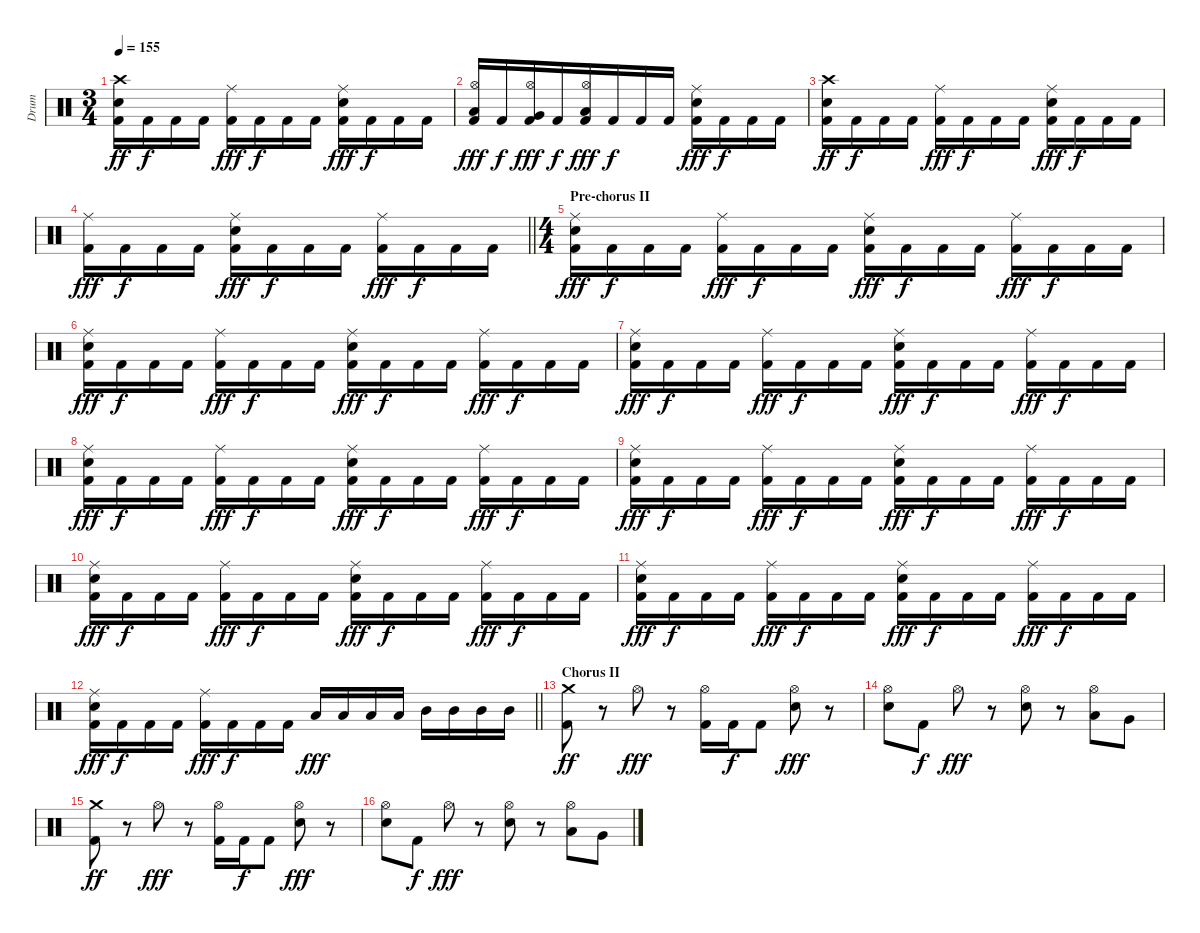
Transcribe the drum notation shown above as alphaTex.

\track ("Drum" "Drum") {instrument percussion}
\staff {score}
\articulation defaults
\ts (3 4)
\tempo 155
\clef neutral
\ks c
("Crash high (hit)" "Snare (hit) 2" "Kick (hit) 2").16{dy ff} "Kick (hit) 2".16{dy f} "Kick (hit) 2".16 "Kick (hit) 2".16 ("Ride (middle)" "Kick (hit) 2").16{dy fff} "Kick (hit) 2".16{dy f} "Kick (hit) 2".16 "Kick (hit) 2".16 ("Ride (middle)" "Snare (hit) 2" "Kick (hit) 2").16{dy fff} "Kick (hit) 2".16{dy f} "Kick (hit) 2".16 "Kick (hit) 2".16 |
("Hi-Hat (open)" "Low Tom (hit)" "Kick (hit) 2").16{dy fff beam merge} "Kick (hit) 2".16{dy f beam merge} ("Hi-Hat (open)" "Very Low Tom (hit)" "Kick (hit) 2").16{dy fff} "Kick (hit) 2".16{dy f beam merge} ("Hi-Hat (open)" "Low Floor Tom (hit)" "Kick (hit) 2").16{dy fff} "Kick (hit) 2".16{dy f} "Kick (hit) 2".16{beam merge} "Kick (hit) 2".16 ("Ride (middle)" "Snare (hit) 2" "Kick (hit) 2").16{dy fff} "Kick (hit) 2".16{dy f} "Kick (hit) 2".16 "Kick (hit) 2".16 |
("Crash high (hit)" "Snare (hit) 2" "Kick (hit) 2").16{dy ff} "Kick (hit) 2".16{dy f} "Kick (hit) 2".16 "Kick (hit) 2".16 ("Ride (middle)" "Kick (hit) 2").16{dy fff} "Kick (hit) 2".16{dy f} "Kick (hit) 2".16 "Kick (hit) 2".16 ("Ride (middle)" "Snare (hit) 2" "Kick (hit) 2").16{dy fff} "Kick (hit) 2".16{dy f} "Kick (hit) 2".16 "Kick (hit) 2".16 |
\barLineRight lightlight
("Ride (middle)" "Kick (hit) 2").16{dy fff} "Kick (hit) 2".16{dy f} "Kick (hit) 2".16 "Kick (hit) 2".16 ("Ride (middle)" "Snare (hit) 2" "Kick (hit) 2").16{dy fff} "Kick (hit) 2".16{dy f} "Kick (hit) 2".16 "Kick (hit) 2".16 ("Ride (middle)" "Kick (hit) 2").16{dy fff} "Kick (hit) 2".16{dy f} "Kick (hit) 2".16 "Kick (hit) 2".16 |
\ts (4 4)
\section ("" "Pre-chorus II")
("Ride (middle)" "Snare (hit) 2" "Kick (hit) 2").16{dy fff} "Kick (hit) 2".16{dy f} "Kick (hit) 2".16 "Kick (hit) 2".16 ("Ride (middle)" "Kick (hit) 2").16{dy fff} "Kick (hit) 2".16{dy f} "Kick (hit) 2".16 "Kick (hit) 2".16 ("Ride (middle)" "Snare (hit) 2" "Kick (hit) 2").16{dy fff} "Kick (hit) 2".16{dy f} "Kick (hit) 2".16 "Kick (hit) 2".16 ("Ride (middle)" "Kick (hit) 2").16{dy fff} "Kick (hit) 2".16{dy f} "Kick (hit) 2".16 "Kick (hit) 2".16 |
("Ride (middle)" "Snare (hit) 2" "Kick (hit) 2").16{dy fff} "Kick (hit) 2".16{dy f} "Kick (hit) 2".16 "Kick (hit) 2".16 ("Ride (middle)" "Kick (hit) 2").16{dy fff} "Kick (hit) 2".16{dy f} "Kick (hit) 2".16 "Kick (hit) 2".16 ("Ride (middle)" "Snare (hit) 2" "Kick (hit) 2").16{dy fff} "Kick (hit) 2".16{dy f} "Kick (hit) 2".16 "Kick (hit) 2".16 ("Ride (middle)" "Kick (hit) 2").16{dy fff} "Kick (hit) 2".16{dy f} "Kick (hit) 2".16 "Kick (hit) 2".16 |
("Ride (middle)" "Snare (hit) 2" "Kick (hit) 2").16{dy fff} "Kick (hit) 2".16{dy f} "Kick (hit) 2".16 "Kick (hit) 2".16 ("Ride (middle)" "Kick (hit) 2").16{dy fff} "Kick (hit) 2".16{dy f} "Kick (hit) 2".16 "Kick (hit) 2".16 ("Ride (middle)" "Snare (hit) 2" "Kick (hit) 2").16{dy fff} "Kick (hit) 2".16{dy f} "Kick (hit) 2".16 "Kick (hit) 2".16 ("Ride (middle)" "Kick (hit) 2").16{dy fff} "Kick (hit) 2".16{dy f} "Kick (hit) 2".16 "Kick (hit) 2".16 |
("Ride (middle)" "Snare (hit) 2" "Kick (hit) 2").16{dy fff} "Kick (hit) 2".16{dy f} "Kick (hit) 2".16 "Kick (hit) 2".16 ("Ride (middle)" "Kick (hit) 2").16{dy fff} "Kick (hit) 2".16{dy f} "Kick (hit) 2".16 "Kick (hit) 2".16 ("Ride (middle)" "Snare (hit) 2" "Kick (hit) 2").16{dy fff} "Kick (hit) 2".16{dy f} "Kick (hit) 2".16 "Kick (hit) 2".16 ("Ride (middle)" "Kick (hit) 2").16{dy fff} "Kick (hit) 2".16{dy f} "Kick (hit) 2".16 "Kick (hit) 2".16 |
("Ride (middle)" "Snare (hit) 2" "Kick (hit) 2").16{dy fff} "Kick (hit) 2".16{dy f} "Kick (hit) 2".16 "Kick (hit) 2".16 ("Ride (middle)" "Kick (hit) 2").16{dy fff} "Kick (hit) 2".16{dy f} "Kick (hit) 2".16 "Kick (hit) 2".16 ("Ride (middle)" "Snare (hit) 2" "Kick (hit) 2").16{dy fff} "Kick (hit) 2".16{dy f} "Kick (hit) 2".16 "Kick (hit) 2".16 ("Ride (middle)" "Kick (hit) 2").16{dy fff} "Kick (hit) 2".16{dy f} "Kick (hit) 2".16 "Kick (hit) 2".16 |
("Ride (middle)" "Snare (hit) 2" "Kick (hit) 2").16{dy fff} "Kick (hit) 2".16{dy f} "Kick (hit) 2".16 "Kick (hit) 2".16 ("Ride (middle)" "Kick (hit) 2").16{dy fff} "Kick (hit) 2".16{dy f} "Kick (hit) 2".16 "Kick (hit) 2".16 ("Ride (middle)" "Snare (hit) 2" "Kick (hit) 2").16{dy fff} "Kick (hit) 2".16{dy f} "Kick (hit) 2".16 "Kick (hit) 2".16 ("Ride (middle)" "Kick (hit) 2").16{dy fff} "Kick (hit) 2".16{dy f} "Kick (hit) 2".16 "Kick (hit) 2".16 |
("Ride (middle)" "Snare (hit) 2" "Kick (hit) 2").16{dy fff} "Kick (hit) 2".16{dy f} "Kick (hit) 2".16 "Kick (hit) 2".16 ("Ride (middle)" "Kick (hit) 2").16{dy fff} "Kick (hit) 2".16{dy f} "Kick (hit) 2".16 "Kick (hit) 2".16 ("Ride (middle)" "Snare (hit) 2" "Kick (hit) 2").16{dy fff} "Kick (hit) 2".16{dy f} "Kick (hit) 2".16 "Kick (hit) 2".16 ("Ride (middle)" "Kick (hit) 2").16{dy fff} "Kick (hit) 2".16{dy f} "Kick (hit) 2".16 "Kick (hit) 2".16 |
\barLineRight lightlight
("Ride (middle)" "Snare (hit) 2" "Kick (hit) 2").16{dy fff} "Kick (hit) 2".16{dy f} "Kick (hit) 2".16 "Kick (hit) 2".16 ("Ride (middle)" "Kick (hit) 2").16{dy fff} "Kick (hit) 2".16{dy f} "Kick (hit) 2".16 "Kick (hit) 2".16 "Low Tom (hit)".16{dy fff} "Low Tom (hit)".16 "Low Tom (hit)".16 "Low Tom (hit)".16 "Mid Tom (hit)".16 "Mid Tom (hit)".16 "Mid Tom (hit)".16 "Mid Tom (hit)".16 |
\section ("" "Chorus II")
("Crash medium (hit)" "Kick (hit) 2").8{dy ff} r.8 "Hi-Hat (open)".8{dy fff} r.8 ("Hi-Hat (open)" "Kick (hit) 2").16 "Kick (hit) 2".16{dy f} "Kick (hit) 2".8 ("Hi-Hat (open)" "Snare (hit) 2").8{dy fff} r.8 |
("Hi-Hat (open)" "Snare (hit) 2").8 "Kick (hit) 2".8{dy f} "Hi-Hat (open)".8{dy fff} r.8 ("Hi-Hat (open)" "Snare (hit) 2").8 r.8 ("Hi-Hat (open)" "Low Floor Tom (hit)").8 "Very Low Tom (hit)".8 |
("Crash medium (hit)" "Kick (hit) 2").8{dy ff} r.8 "Hi-Hat (open)".8{dy fff} r.8 ("Hi-Hat (open)" "Kick (hit) 2").16 "Kick (hit) 2".16{dy f} "Kick (hit) 2".8 ("Hi-Hat (open)" "Snare (hit) 2").8{dy fff} r.8 |
("Hi-Hat (open)" "Snare (hit) 2").8 "Kick (hit) 2".8{dy f} "Hi-Hat (open)".8{dy fff} r.8 ("Hi-Hat (open)" "Snare (hit) 2").8 r.8 ("Hi-Hat (open)" "Low Floor Tom (hit)").8 "Very Low Tom (hit)".8
